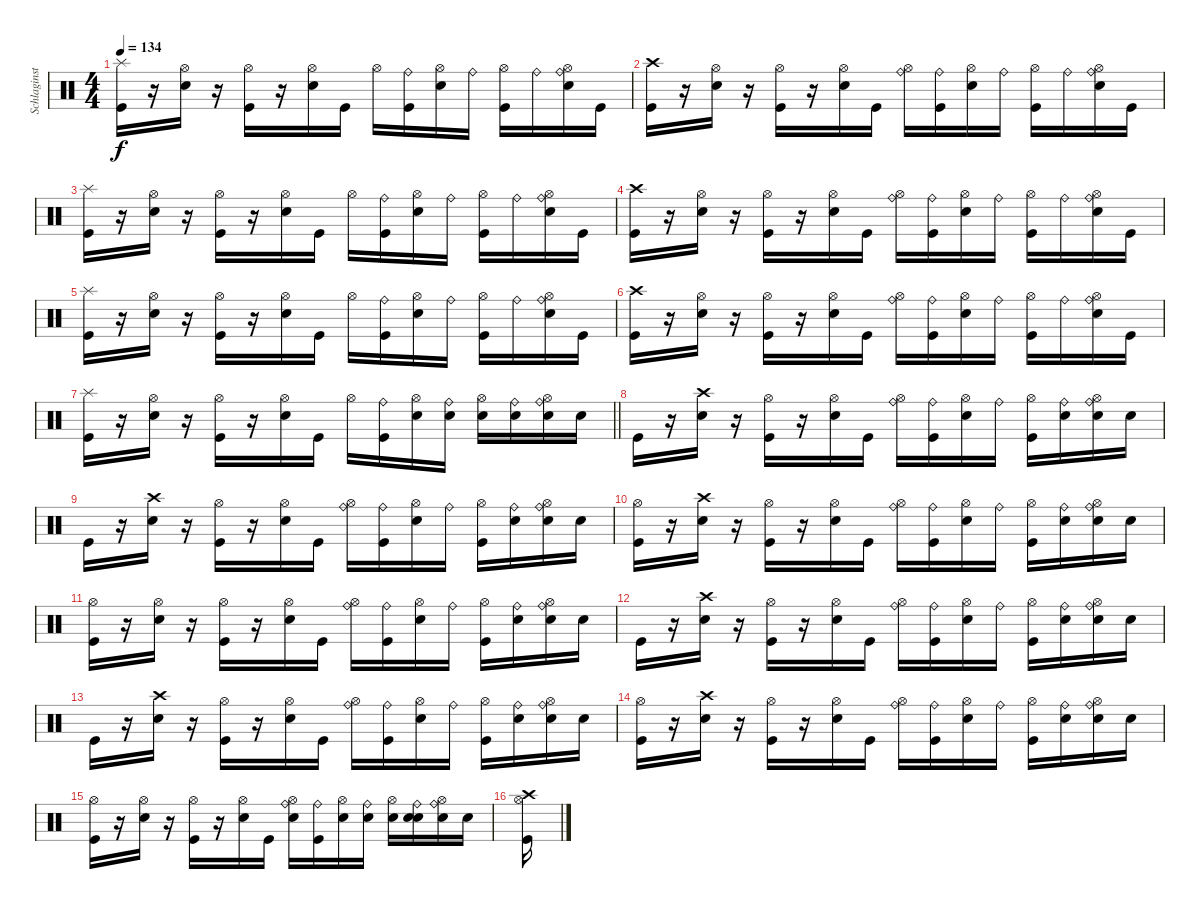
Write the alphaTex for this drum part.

\track ("Schlaginstrumente - Auswahl" "Schlaginst") {instrument percussion}
\staff {score}
\articulation defaults
\ts (4 4)
\tempo 134
\clef neutral
\ks c
("Splash (hit)" "Kick (hit)").16{dy f} r.16 ("Hi-Hat (open)" "Snare (hit) 2").16 r.16 ("Hi-Hat (open)" "Kick (hit)").16 r.16 ("Hi-Hat (open)" "Snare (hit) 2").16 "Kick (hit)".16 "Hi-Hat (open)".16 ("Kick (hit)" "Ride (bell)").16 ("Hi-Hat (open)" "Snare (hit) 2").16 "Ride (bell)".16 ("Hi-Hat (open)" "Kick (hit)").16 "Ride (bell)".16 ("Hi-Hat (open)" "Snare (hit) 2" "Ride (bell)").16 "Kick (hit)".16 |
("Crash high (hit)" "Kick (hit)").16 r.16 ("Hi-Hat (open)" "Snare (hit) 2").16 r.16 ("Hi-Hat (open)" "Kick (hit)").16 r.16 ("Hi-Hat (open)" "Snare (hit) 2").16 "Kick (hit)".16 ("Hi-Hat (open)" "Ride (bell)").16 ("Kick (hit)" "Ride (bell)").16 ("Hi-Hat (open)" "Snare (hit) 2").16 "Ride (bell)".16 ("Hi-Hat (open)" "Kick (hit)").16 "Ride (bell)".16 ("Hi-Hat (open)" "Snare (hit) 2" "Ride (bell)").16 "Kick (hit)".16 |
("Splash (hit)" "Kick (hit)").16 r.16 ("Hi-Hat (open)" "Snare (hit) 2").16 r.16 ("Hi-Hat (open)" "Kick (hit)").16 r.16 ("Hi-Hat (open)" "Snare (hit) 2").16 "Kick (hit)".16 "Hi-Hat (open)".16 ("Kick (hit)" "Ride (bell)").16 ("Hi-Hat (open)" "Snare (hit) 2").16 "Ride (bell)".16 ("Hi-Hat (open)" "Kick (hit)").16 "Ride (bell)".16 ("Hi-Hat (open)" "Snare (hit) 2" "Ride (bell)").16 "Kick (hit)".16 |
("Crash high (hit)" "Kick (hit)").16 r.16 ("Hi-Hat (open)" "Snare (hit) 2").16 r.16 ("Hi-Hat (open)" "Kick (hit)").16 r.16 ("Hi-Hat (open)" "Snare (hit) 2").16 "Kick (hit)".16 ("Hi-Hat (open)" "Ride (bell)").16 ("Kick (hit)" "Ride (bell)").16 ("Hi-Hat (open)" "Snare (hit) 2").16 "Ride (bell)".16 ("Hi-Hat (open)" "Kick (hit)").16 "Ride (bell)".16 ("Hi-Hat (open)" "Snare (hit) 2" "Ride (bell)").16 "Kick (hit)".16 |
("Splash (hit)" "Kick (hit)").16 r.16 ("Hi-Hat (open)" "Snare (hit) 2").16 r.16 ("Hi-Hat (open)" "Kick (hit)").16 r.16 ("Hi-Hat (open)" "Snare (hit) 2").16 "Kick (hit)".16 "Hi-Hat (open)".16 ("Kick (hit)" "Ride (bell)").16 ("Hi-Hat (open)" "Snare (hit) 2").16 "Ride (bell)".16 ("Hi-Hat (open)" "Kick (hit)").16 "Ride (bell)".16 ("Hi-Hat (open)" "Snare (hit) 2" "Ride (bell)").16 "Kick (hit)".16 |
("Crash high (hit)" "Kick (hit)").16 r.16 ("Hi-Hat (open)" "Snare (hit) 2").16 r.16 ("Hi-Hat (open)" "Kick (hit)").16 r.16 ("Hi-Hat (open)" "Snare (hit) 2").16 "Kick (hit)".16 ("Hi-Hat (open)" "Ride (bell)").16 ("Kick (hit)" "Ride (bell)").16 ("Hi-Hat (open)" "Snare (hit) 2").16 "Ride (bell)".16 ("Hi-Hat (open)" "Kick (hit)").16 "Ride (bell)".16 ("Hi-Hat (open)" "Snare (hit) 2" "Ride (bell)").16 "Kick (hit)".16 |
\barLineRight lightlight
("Splash (hit)" "Kick (hit)").16 r.16 ("Hi-Hat (open)" "Snare (hit) 2").16 r.16 ("Hi-Hat (open)" "Kick (hit)").16 r.16 ("Hi-Hat (open)" "Snare (hit) 2").16 "Kick (hit)".16 "Hi-Hat (open)".16 ("Kick (hit)" "Ride (bell)").16 ("Hi-Hat (open)" "Snare (hit) 2").16 ("Snare (hit) 2" "Ride (bell)").16 ("Hi-Hat (open)" "Snare (hit) 2").16 ("Snare (hit) 2" "Ride (bell)").16 ("Hi-Hat (open)" "Snare (hit) 2" "Ride (bell)").16 "Snare (hit) 2".16 |
"Kick (hit)".16 r.16 ("Crash high (hit)" "Snare (hit) 2").16 r.16 ("Hi-Hat (open)" "Kick (hit)").16 r.16 ("Hi-Hat (open)" "Snare (hit) 2").16 "Kick (hit)".16 ("Hi-Hat (open)" "Ride (bell)").16 ("Kick (hit)" "Ride (bell)").16 ("Hi-Hat (open)" "Snare (hit) 2").16 "Ride (bell)".16 ("Hi-Hat (open)" "Kick (hit)").16 ("Snare (hit) 2" "Ride (bell)").16 ("Hi-Hat (open)" "Snare (hit) 2" "Ride (bell)").16 "Snare (hit) 2".16 |
"Kick (hit)".16 r.16 ("Crash high (hit)" "Snare (hit) 2").16 r.16 ("Hi-Hat (open)" "Kick (hit)").16 r.16 ("Hi-Hat (open)" "Snare (hit) 2").16 "Kick (hit)".16 ("Hi-Hat (open)" "Ride (bell)").16 ("Kick (hit)" "Ride (bell)").16 ("Hi-Hat (open)" "Snare (hit) 2").16 "Ride (bell)".16 ("Hi-Hat (open)" "Kick (hit)").16 ("Snare (hit) 2" "Ride (bell)").16 ("Hi-Hat (open)" "Snare (hit) 2" "Ride (bell)").16 "Snare (hit) 2".16 |
("Hi-Hat (open)" "Kick (hit)").16 r.16 ("Crash high (hit)" "Snare (hit) 2").16 r.16 ("Hi-Hat (open)" "Kick (hit)").16 r.16 ("Hi-Hat (open)" "Snare (hit) 2").16 "Kick (hit)".16 ("Hi-Hat (open)" "Ride (bell)").16 ("Kick (hit)" "Ride (bell)").16 ("Hi-Hat (open)" "Snare (hit) 2").16 "Ride (bell)".16 ("Hi-Hat (open)" "Kick (hit)").16 ("Snare (hit) 2" "Ride (bell)").16 ("Hi-Hat (open)" "Snare (hit) 2" "Ride (bell)").16 "Snare (hit) 2".16 |
("Hi-Hat (open)" "Kick (hit)").16 r.16 ("Hi-Hat (open)" "Snare (hit) 2").16 r.16 ("Hi-Hat (open)" "Kick (hit)").16 r.16 ("Hi-Hat (open)" "Snare (hit) 2").16 "Kick (hit)".16 ("Hi-Hat (open)" "Ride (bell)").16 ("Kick (hit)" "Ride (bell)").16 ("Hi-Hat (open)" "Snare (hit) 2").16 "Ride (bell)".16 ("Hi-Hat (open)" "Kick (hit)").16 ("Snare (hit) 2" "Ride (bell)").16 ("Hi-Hat (open)" "Snare (hit) 2" "Ride (bell)").16 "Snare (hit) 2".16 |
"Kick (hit)".16 r.16 ("Crash high (hit)" "Snare (hit) 2").16 r.16 ("Hi-Hat (open)" "Kick (hit)").16 r.16 ("Hi-Hat (open)" "Snare (hit) 2").16 "Kick (hit)".16 ("Hi-Hat (open)" "Ride (bell)").16 ("Kick (hit)" "Ride (bell)").16 ("Hi-Hat (open)" "Snare (hit) 2").16 "Ride (bell)".16 ("Hi-Hat (open)" "Kick (hit)").16 ("Snare (hit) 2" "Ride (bell)").16 ("Hi-Hat (open)" "Snare (hit) 2" "Ride (bell)").16 "Snare (hit) 2".16 |
"Kick (hit)".16 r.16 ("Crash high (hit)" "Snare (hit) 2").16 r.16 ("Hi-Hat (open)" "Kick (hit)").16 r.16 ("Hi-Hat (open)" "Snare (hit) 2").16 "Kick (hit)".16 ("Hi-Hat (open)" "Ride (bell)").16 ("Kick (hit)" "Ride (bell)").16 ("Hi-Hat (open)" "Snare (hit) 2").16 "Ride (bell)".16 ("Hi-Hat (open)" "Kick (hit)").16 ("Snare (hit) 2" "Ride (bell)").16 ("Hi-Hat (open)" "Snare (hit) 2" "Ride (bell)").16 "Snare (hit) 2".16 |
("Hi-Hat (open)" "Kick (hit)").16 r.16 ("Crash high (hit)" "Snare (hit) 2").16 r.16 ("Hi-Hat (open)" "Kick (hit)").16 r.16 ("Hi-Hat (open)" "Snare (hit) 2").16 "Kick (hit)".16 ("Hi-Hat (open)" "Ride (bell)").16 ("Kick (hit)" "Ride (bell)").16 ("Hi-Hat (open)" "Snare (hit) 2").16 "Ride (bell)".16 ("Hi-Hat (open)" "Kick (hit)").16 ("Snare (hit) 2" "Ride (bell)").16 ("Hi-Hat (open)" "Snare (hit) 2" "Ride (bell)").16 "Snare (hit) 2".16 |
("Hi-Hat (open)" "Kick (hit)").16 r.16 ("Hi-Hat (open)" "Snare (hit) 2").16 r.16 ("Hi-Hat (open)" "Kick (hit)").16 r.16 ("Hi-Hat (open)" "Snare (hit) 2").16 "Kick (hit)".16 ("Hi-Hat (open)" "Snare (hit) 2" "Ride (bell)").16 ("Kick (hit)" "Ride (bell)").16 ("Hi-Hat (open)" "Snare (hit) 2").16 ("Snare (hit) 2" "Ride (bell)").16 ("Hi-Hat (open)" "Snare (hit) 2").16 ("Snare (hit) 2" "Snare (hit) 2" "Ride (bell)").16 ("Hi-Hat (open)" "Snare (hit) 2" "Ride (bell)").16 "Snare (hit) 2".16 |
("Hi-Hat (open)" "Crash high (hit)" "Kick (hit)").16
